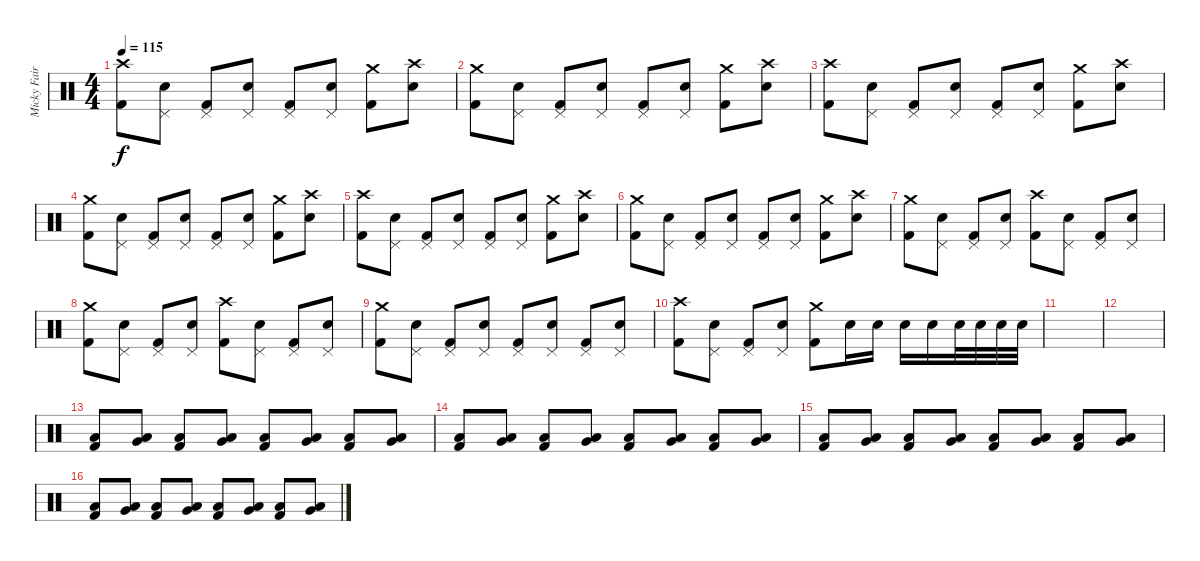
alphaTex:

\track ("Micky Fairbairn - Drums" "Micky Fair") {instrument percussion}
\staff {score}
\articulation defaults
\ts (4 4)
\tempo 115
\clef neutral
\ks c
("Crash high (hit)" "Kick (hit) 2").8{dy f} ("Pedal Hi-Hat (hit)" "Snare (hit) 2").8 ("Pedal Hi-Hat (hit)" "Kick (hit) 2").8 ("Pedal Hi-Hat (hit)" "Snare (hit) 2").8 ("Pedal Hi-Hat (hit)" "Kick (hit) 2").8 ("Pedal Hi-Hat (hit)" "Snare (hit) 2").8 ("Crash medium (hit)" "Kick (hit) 2").8 ("Crash high (hit)" "Snare (hit) 2").8 |
("Crash medium (hit)" "Kick (hit) 2").8 ("Pedal Hi-Hat (hit)" "Snare (hit) 2").8 ("Pedal Hi-Hat (hit)" "Kick (hit) 2").8 ("Pedal Hi-Hat (hit)" "Snare (hit) 2").8 ("Pedal Hi-Hat (hit)" "Kick (hit) 2").8 ("Pedal Hi-Hat (hit)" "Snare (hit) 2").8 ("Crash medium (hit)" "Kick (hit) 2").8 ("Crash high (hit)" "Snare (hit) 2").8 |
("Crash high (hit)" "Kick (hit) 2").8 ("Pedal Hi-Hat (hit)" "Snare (hit) 2").8 ("Pedal Hi-Hat (hit)" "Kick (hit) 2").8 ("Pedal Hi-Hat (hit)" "Snare (hit) 2").8 ("Pedal Hi-Hat (hit)" "Kick (hit) 2").8 ("Pedal Hi-Hat (hit)" "Snare (hit) 2").8 ("Crash medium (hit)" "Kick (hit) 2").8 ("Crash high (hit)" "Snare (hit) 2").8 |
("Crash medium (hit)" "Kick (hit) 2").8 ("Pedal Hi-Hat (hit)" "Snare (hit) 2").8 ("Pedal Hi-Hat (hit)" "Kick (hit) 2").8 ("Pedal Hi-Hat (hit)" "Snare (hit) 2").8 ("Pedal Hi-Hat (hit)" "Kick (hit) 2").8 ("Pedal Hi-Hat (hit)" "Snare (hit) 2").8 ("Crash medium (hit)" "Kick (hit) 2").8 ("Crash high (hit)" "Snare (hit) 2").8 |
("Crash high (hit)" "Kick (hit) 2").8 ("Pedal Hi-Hat (hit)" "Snare (hit) 2").8 ("Pedal Hi-Hat (hit)" "Kick (hit) 2").8 ("Pedal Hi-Hat (hit)" "Snare (hit) 2").8 ("Pedal Hi-Hat (hit)" "Kick (hit) 2").8 ("Pedal Hi-Hat (hit)" "Snare (hit) 2").8 ("Crash medium (hit)" "Kick (hit) 2").8 ("Crash high (hit)" "Snare (hit) 2").8 |
("Crash medium (hit)" "Kick (hit) 2").8 ("Pedal Hi-Hat (hit)" "Snare (hit) 2").8 ("Pedal Hi-Hat (hit)" "Kick (hit) 2").8 ("Pedal Hi-Hat (hit)" "Snare (hit) 2").8 ("Pedal Hi-Hat (hit)" "Kick (hit) 2").8 ("Pedal Hi-Hat (hit)" "Snare (hit) 2").8 ("Crash medium (hit)" "Kick (hit) 2").8 ("Crash high (hit)" "Snare (hit) 2").8 |
("Crash medium (hit)" "Kick (hit) 2").8 ("Pedal Hi-Hat (hit)" "Snare (hit) 2").8 ("Pedal Hi-Hat (hit)" "Kick (hit) 2").8 ("Pedal Hi-Hat (hit)" "Snare (hit) 2").8 ("Crash high (hit)" "Kick (hit) 2").8 ("Pedal Hi-Hat (hit)" "Snare (hit) 2").8 ("Pedal Hi-Hat (hit)" "Kick (hit) 2").8 ("Pedal Hi-Hat (hit)" "Snare (hit) 2").8 |
("Crash medium (hit)" "Kick (hit) 2").8 ("Pedal Hi-Hat (hit)" "Snare (hit) 2").8 ("Pedal Hi-Hat (hit)" "Kick (hit) 2").8 ("Pedal Hi-Hat (hit)" "Snare (hit) 2").8 ("Crash high (hit)" "Kick (hit) 2").8 ("Pedal Hi-Hat (hit)" "Snare (hit) 2").8 ("Pedal Hi-Hat (hit)" "Kick (hit) 2").8 ("Pedal Hi-Hat (hit)" "Snare (hit) 2").8 |
("Crash medium (hit)" "Kick (hit) 2").8 ("Pedal Hi-Hat (hit)" "Snare (hit) 2").8 ("Pedal Hi-Hat (hit)" "Kick (hit) 2").8 ("Pedal Hi-Hat (hit)" "Snare (hit) 2").8 ("Pedal Hi-Hat (hit)" "Kick (hit) 2").8 ("Pedal Hi-Hat (hit)" "Snare (hit) 2").8 ("Pedal Hi-Hat (hit)" "Kick (hit) 2").8 ("Pedal Hi-Hat (hit)" "Snare (hit) 2").8 |
("Crash high (hit)" "Kick (hit) 2").8 ("Pedal Hi-Hat (hit)" "Snare (hit) 2").8 ("Pedal Hi-Hat (hit)" "Kick (hit) 2").8 ("Pedal Hi-Hat (hit)" "Snare (hit) 2").8 ("Crash medium (hit)" "Kick (hit) 2").8 "Snare (hit) 2".16 "Snare (hit) 2".16 "Snare (hit) 2".16 "Snare (hit) 2".16 "Snare (hit) 2".32 "Snare (hit) 2".32 "Snare (hit) 2".32 "Snare (hit) 2".32 |
|
|
("Low Floor Tom (hit)" "Kick (hit) 2").8 ("Very Low Tom (hit)" "Low Floor Tom (hit)").8 ("Low Floor Tom (hit)" "Kick (hit) 2").8 ("Very Low Tom (hit)" "Low Floor Tom (hit)").8 ("Low Floor Tom (hit)" "Kick (hit) 2").8 ("Very Low Tom (hit)" "Low Floor Tom (hit)").8 ("Low Floor Tom (hit)" "Kick (hit) 2").8 ("Very Low Tom (hit)" "Low Floor Tom (hit)").8 |
("Low Floor Tom (hit)" "Kick (hit) 2").8 ("Very Low Tom (hit)" "Low Floor Tom (hit)").8 ("Low Floor Tom (hit)" "Kick (hit) 2").8 ("Very Low Tom (hit)" "Low Floor Tom (hit)").8 ("Low Floor Tom (hit)" "Kick (hit) 2").8 ("Very Low Tom (hit)" "Low Floor Tom (hit)").8 ("Low Floor Tom (hit)" "Kick (hit) 2").8 ("Very Low Tom (hit)" "Low Floor Tom (hit)").8 |
("Low Floor Tom (hit)" "Kick (hit) 2").8 ("Very Low Tom (hit)" "Low Floor Tom (hit)").8 ("Low Floor Tom (hit)" "Kick (hit) 2").8 ("Very Low Tom (hit)" "Low Floor Tom (hit)").8 ("Low Floor Tom (hit)" "Kick (hit) 2").8 ("Very Low Tom (hit)" "Low Floor Tom (hit)").8 ("Low Floor Tom (hit)" "Kick (hit) 2").8 ("Very Low Tom (hit)" "Low Floor Tom (hit)").8 |
("Low Floor Tom (hit)" "Kick (hit) 2").8 ("Very Low Tom (hit)" "Low Floor Tom (hit)").8 ("Low Floor Tom (hit)" "Kick (hit) 2").8 ("Very Low Tom (hit)" "Low Floor Tom (hit)").8 ("Low Floor Tom (hit)" "Kick (hit) 2").8 ("Very Low Tom (hit)" "Low Floor Tom (hit)").8 ("Low Floor Tom (hit)" "Kick (hit) 2").8 ("Very Low Tom (hit)" "Low Floor Tom (hit)").8
